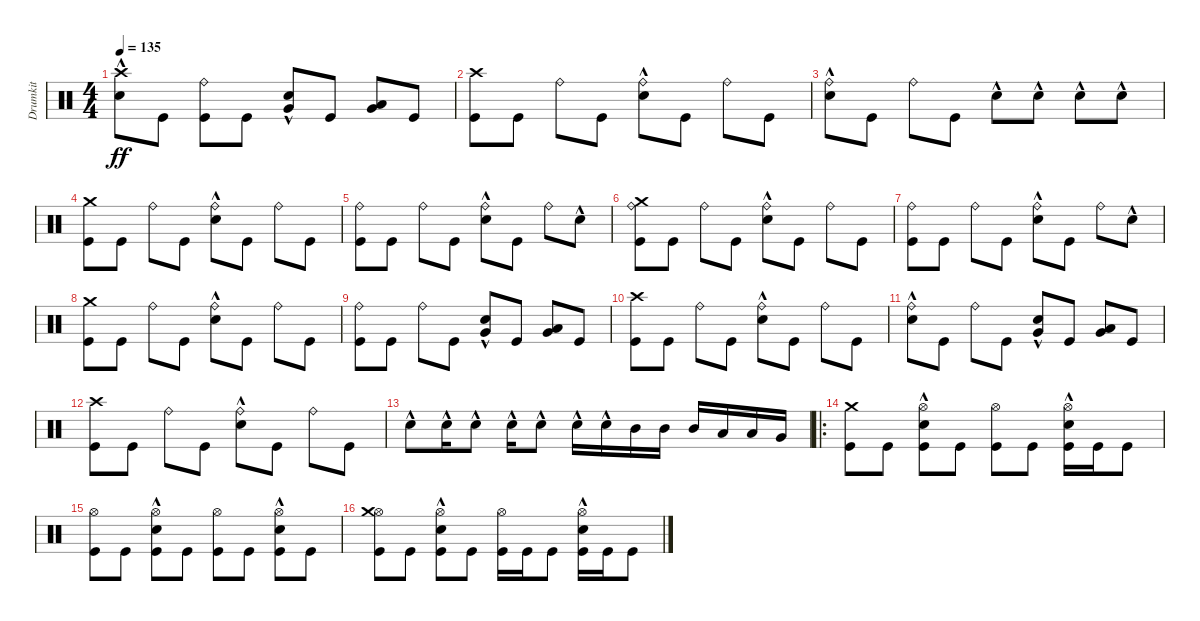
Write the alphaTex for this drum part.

\track ("Drumkit" "Drumkit") {instrument percussion}
\staff {score}
\articulation defaults
\ts (4 4)
\tempo 135
\clef neutral
\ks c
("Snare (hit) 2"{hac} "Crash high (hit)").8{dy ff} "Kick (hit)".8 ("Ride (bell)" "Kick (hit)").8 "Kick (hit)".8 ("Snare (hit) 2"{hac} "Very Low Tom (hit)").8 "Kick (hit)".8 ("Very Low Tom (hit)" "Low Tom (hit)").8 "Kick (hit)".8 |
("Kick (hit)" "Crash high (hit)").8 "Kick (hit)".8 "Ride (bell)".8 "Kick (hit)".8 ("Ride (bell)" "Snare (hit) 2"{hac}).8 "Kick (hit)".8 "Ride (bell)".8 "Kick (hit)".8 |
("Snare (hit) 2"{hac} "Ride (bell)").8 "Kick (hit)".8 "Ride (bell)".8 "Kick (hit)".8 "Snare (hit) 2"{hac}.8 "Snare (hit) 2"{hac}.8 "Snare (hit) 2"{hac}.8 "Snare (hit) 2"{hac}.8 |
("Kick (hit)" "Crash medium (hit)").8 "Kick (hit)".8 "Ride (bell)".8 "Kick (hit)".8 ("Ride (bell)" "Snare (hit) 2"{hac}).8 "Kick (hit)".8 "Ride (bell)".8 "Kick (hit)".8 |
("Kick (hit)" "Ride (bell)").8 "Kick (hit)".8 "Ride (bell)".8 "Kick (hit)".8 ("Ride (bell)" "Snare (hit) 2"{hac}).8 "Kick (hit)".8 "Ride (bell)".8 "Snare (hit) 2"{hac}.8 |
("Kick (hit)" "Crash medium (hit)" "Ride (bell)").8 "Kick (hit)".8 "Ride (bell)".8 "Kick (hit)".8 ("Ride (bell)" "Snare (hit) 2"{hac}).8 "Kick (hit)".8 "Ride (bell)".8 "Kick (hit)".8 |
("Kick (hit)" "Ride (bell)").8 "Kick (hit)".8 "Ride (bell)".8 "Kick (hit)".8 ("Ride (bell)" "Snare (hit) 2"{hac}).8 "Kick (hit)".8 "Ride (bell)".8 "Snare (hit) 2"{hac}.8 |
("Kick (hit)" "Crash medium (hit)").8 "Kick (hit)".8 "Ride (bell)".8 "Kick (hit)".8 ("Ride (bell)" "Snare (hit) 2"{hac}).8 "Kick (hit)".8 "Ride (bell)".8 "Kick (hit)".8 |
("Kick (hit)" "Ride (bell)").8 "Kick (hit)".8 "Ride (bell)".8 "Kick (hit)".8 ("Snare (hit) 2"{hac} "Very Low Tom (hit)").8 "Kick (hit)".8 ("Very Low Tom (hit)" "Low Tom (hit)").8 "Kick (hit)".8 |
("Kick (hit)" "Crash high (hit)").8 "Kick (hit)".8 "Ride (bell)".8 "Kick (hit)".8 ("Ride (bell)" "Snare (hit) 2"{hac}).8 "Kick (hit)".8 "Ride (bell)".8 "Kick (hit)".8 |
("Snare (hit) 2"{hac} "Ride (bell)").8 "Kick (hit)".8 "Ride (bell)".8 "Kick (hit)".8 ("Snare (hit) 2"{hac} "Very Low Tom (hit)").8 "Kick (hit)".8 ("Very Low Tom (hit)" "Low Tom (hit)").8 "Kick (hit)".8 |
("Kick (hit)" "Crash high (hit)").8 "Kick (hit)".8 "Ride (bell)".8 "Kick (hit)".8 ("Ride (bell)" "Snare (hit) 2"{hac}).8 "Kick (hit)".8 "Ride (bell)".8 "Kick (hit)".8 |
"Snare (hit) 2"{hac}.8 "Snare (hit) 2"{hac}.16 "Snare (hit) 2"{hac}.8 "Snare (hit) 2"{hac}.16 "Snare (hit) 2"{hac}.8 "Snare (hit) 2"{hac}.16 "Snare (hit) 2"{hac}.16 "Mid Tom (hit)".16 "Mid Tom (hit)".16 "Mid Tom (hit)".16 "Low Tom (hit)".16 "Low Tom (hit)".16 "Very Low Tom (hit)".16 |
\ro
("Kick (hit)" "Crash medium (hit)").8 "Kick (hit)".8 ("Kick (hit)" "Hi-Hat (open)" "Snare (hit) 2"{hac}).8 "Kick (hit)".8 ("Kick (hit)" "Hi-Hat (open)").8 "Kick (hit)".8 ("Kick (hit)" "Hi-Hat (open)" "Snare (hit) 2"{hac}).16 "Kick (hit)".16 "Kick (hit)".8 |
("Kick (hit)" "Hi-Hat (open)").8 "Kick (hit)".8 ("Kick (hit)" "Hi-Hat (open)" "Snare (hit) 2"{hac}).8 "Kick (hit)".8 ("Kick (hit)" "Hi-Hat (open)").8 "Kick (hit)".8 ("Kick (hit)" "Hi-Hat (open)" "Snare (hit) 2"{hac}).8 "Kick (hit)".8 |
("Kick (hit)" "Hi-Hat (open)" "Crash medium (hit)").8 "Kick (hit)".8 ("Kick (hit)" "Hi-Hat (open)" "Snare (hit) 2"{hac}).8 "Kick (hit)".8 ("Kick (hit)" "Hi-Hat (open)").16 "Kick (hit)".16 "Kick (hit)".8 ("Kick (hit)" "Hi-Hat (open)" "Snare (hit) 2"{hac}).16 "Kick (hit)".16 "Kick (hit)".8
